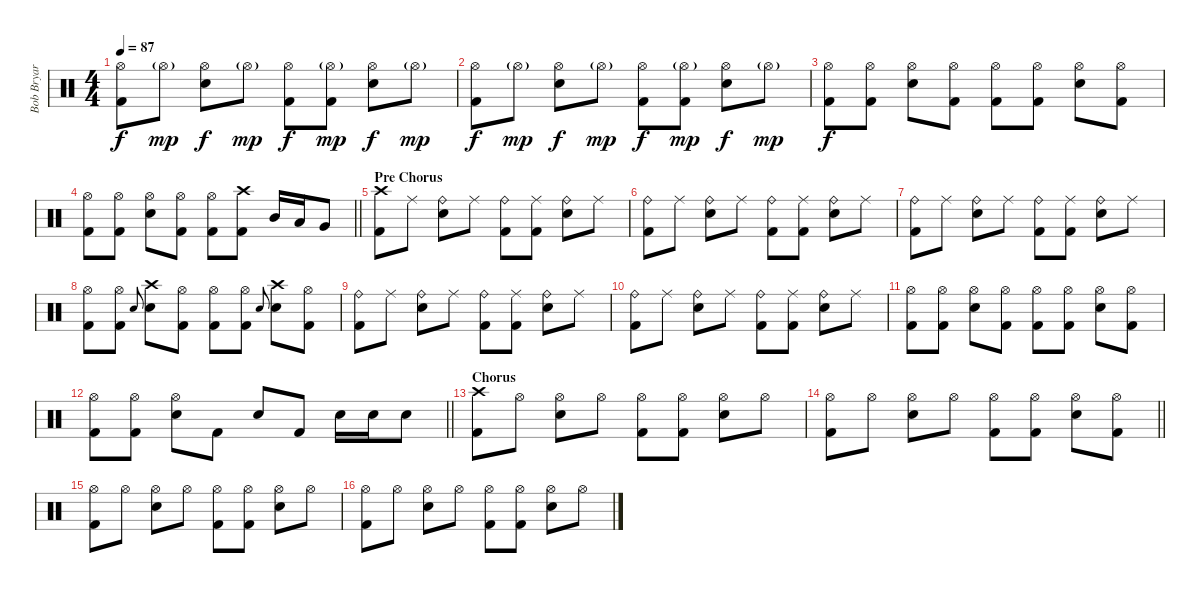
\track ("Bob Bryar" "Bob Bryar") {instrument percussion}
\staff {score}
\articulation defaults
\ts (4 4)
\tempo 87
\clef neutral
\ks c
("Hi-Hat (open)" "Kick (hit) 2").8{dy f} "Hi-Hat (open)"{g}.8{dy mp} ("Hi-Hat (open)" "Electric Snare (hit)").8{dy f} "Hi-Hat (open)"{g}.8{dy mp} ("Hi-Hat (open)" "Kick (hit) 2").8{dy f} ("Hi-Hat (open)"{g} "Kick (hit) 2").8{dy mp} ("Hi-Hat (open)" "Electric Snare (hit)").8{dy f} "Hi-Hat (open)"{g}.8{dy mp} |
("Hi-Hat (open)" "Kick (hit) 2").8{dy f} "Hi-Hat (open)"{g}.8{dy mp} ("Hi-Hat (open)" "Electric Snare (hit)").8{dy f} "Hi-Hat (open)"{g}.8{dy mp} ("Hi-Hat (open)" "Kick (hit) 2").8{dy f} ("Hi-Hat (open)"{g} "Kick (hit) 2").8{dy mp} ("Hi-Hat (open)" "Electric Snare (hit)").8{dy f} "Hi-Hat (open)"{g}.8{dy mp} |
("Hi-Hat (open)" "Kick (hit) 2").8{dy f} ("Hi-Hat (open)" "Kick (hit) 2").8 ("Hi-Hat (open)" "Electric Snare (hit)").8 ("Hi-Hat (open)" "Kick (hit) 2").8 ("Hi-Hat (open)" "Kick (hit) 2").8 ("Hi-Hat (open)" "Kick (hit) 2").8 ("Hi-Hat (open)" "Electric Snare (hit)").8 ("Hi-Hat (open)" "Kick (hit) 2").8 |
\barLineRight lightlight
("Hi-Hat (open)" "Kick (hit) 2").8 ("Hi-Hat (open)" "Kick (hit) 2").8 ("Hi-Hat (open)" "Electric Snare (hit)").8 ("Hi-Hat (open)" "Kick (hit) 2").8 ("Hi-Hat (open)" "Kick (hit) 2").8 ("Crash high (hit)" "Kick (hit) 2").8 "Mid Tom (hit)".16 "Low Tom (hit)".16 "Very Low Tom (hit)".8 |
\section ("" "Pre Chorus")
("Crash high (hit)" "Kick (hit) 2").8 "Ride (middle)".8 ("Ride (bell)" "Electric Snare (hit)").8 "Ride (middle)".8 ("Ride (bell)" "Kick (hit) 2").8 ("Ride (middle)" "Kick (hit) 2").8 ("Ride (bell)" "Electric Snare (hit)").8 "Ride (middle)".8 |
("Ride (bell)" "Kick (hit) 2").8 "Ride (middle)".8 ("Ride (bell)" "Electric Snare (hit)").8 "Ride (middle)".8 ("Ride (bell)" "Kick (hit) 2").8 ("Ride (middle)" "Kick (hit) 2").8 ("Ride (bell)" "Electric Snare (hit)").8 "Ride (middle)".8 |
("Ride (bell)" "Kick (hit) 2").8 "Ride (middle)".8 ("Ride (bell)" "Electric Snare (hit)").8 "Ride (middle)".8 ("Ride (bell)" "Kick (hit) 2").8 ("Ride (middle)" "Kick (hit) 2").8 ("Ride (bell)" "Electric Snare (hit)").8 "Ride (middle)".8 |
("Hi-Hat (open)" "Kick (hit) 2").8 ("Hi-Hat (open)" "Kick (hit) 2").8 "Electric Snare (hit)".8{gr onbeat} ("Crash high (hit)" "Electric Snare (hit)").8 ("Hi-Hat (open)" "Kick (hit) 2").8 ("Hi-Hat (open)" "Kick (hit) 2").8 ("Hi-Hat (open)" "Kick (hit) 2").8 "Electric Snare (hit)".8{gr onbeat} ("Crash high (hit)" "Electric Snare (hit)").8 ("Hi-Hat (open)" "Kick (hit) 2").8 |
("Ride (bell)" "Kick (hit) 2").8 "Ride (middle)".8 ("Ride (bell)" "Electric Snare (hit)").8 "Ride (middle)".8 ("Ride (bell)" "Kick (hit) 2").8 ("Ride (middle)" "Kick (hit) 2").8 ("Ride (bell)" "Electric Snare (hit)").8 "Ride (middle)".8 |
("Ride (bell)" "Kick (hit) 2").8 "Ride (middle)".8 ("Ride (bell)" "Electric Snare (hit)").8 "Ride (middle)".8 ("Ride (bell)" "Kick (hit) 2").8 ("Ride (middle)" "Kick (hit) 2").8 ("Ride (bell)" "Electric Snare (hit)").8 "Ride (middle)".8 |
("Hi-Hat (open)" "Kick (hit) 2").8 ("Hi-Hat (open)" "Kick (hit) 2").8 ("Hi-Hat (open)" "Electric Snare (hit)").8 ("Hi-Hat (open)" "Kick (hit) 2").8 ("Hi-Hat (open)" "Kick (hit) 2").8 ("Hi-Hat (open)" "Kick (hit) 2").8 ("Hi-Hat (open)" "Electric Snare (hit)").8 ("Hi-Hat (open)" "Kick (hit) 2").8 |
\barLineRight lightlight
("Hi-Hat (open)" "Kick (hit) 2").8 ("Hi-Hat (open)" "Kick (hit) 2").8 ("Hi-Hat (open)" "Electric Snare (hit)").8 "Kick (hit) 2".8 "Electric Snare (hit)".8 "Kick (hit) 2".8 "Electric Snare (hit)".16 "Electric Snare (hit)".16 "Electric Snare (hit)".8 |
\section ("" "Chorus ")
("Crash high (hit)" "Kick (hit) 2").8 "Hi-Hat (open)".8 ("Hi-Hat (open)" "Electric Snare (hit)").8 "Hi-Hat (open)".8 ("Hi-Hat (open)" "Kick (hit) 2").8 ("Hi-Hat (open)" "Kick (hit) 2").8 ("Hi-Hat (open)" "Electric Snare (hit)").8 "Hi-Hat (open)".8 |
\barLineRight lightlight
("Hi-Hat (open)" "Kick (hit) 2").8 "Hi-Hat (open)".8 ("Hi-Hat (open)" "Electric Snare (hit)").8 "Hi-Hat (open)".8 ("Hi-Hat (open)" "Kick (hit) 2").8 ("Hi-Hat (open)" "Kick (hit) 2").8 ("Hi-Hat (open)" "Electric Snare (hit)").8 ("Hi-Hat (open)" "Kick (hit) 2").8 |
("Hi-Hat (open)" "Kick (hit) 2").8 "Hi-Hat (open)".8 ("Hi-Hat (open)" "Electric Snare (hit)").8 "Hi-Hat (open)".8 ("Hi-Hat (open)" "Kick (hit) 2").8 ("Hi-Hat (open)" "Kick (hit) 2").8 ("Hi-Hat (open)" "Electric Snare (hit)").8 "Hi-Hat (open)".8 |
("Hi-Hat (open)" "Kick (hit) 2").8 "Hi-Hat (open)".8 ("Hi-Hat (open)" "Electric Snare (hit)").8 "Hi-Hat (open)".8 ("Hi-Hat (open)" "Kick (hit) 2").8 ("Hi-Hat (open)" "Kick (hit) 2").8 ("Hi-Hat (open)" "Electric Snare (hit)").8 "Hi-Hat (open)".8
